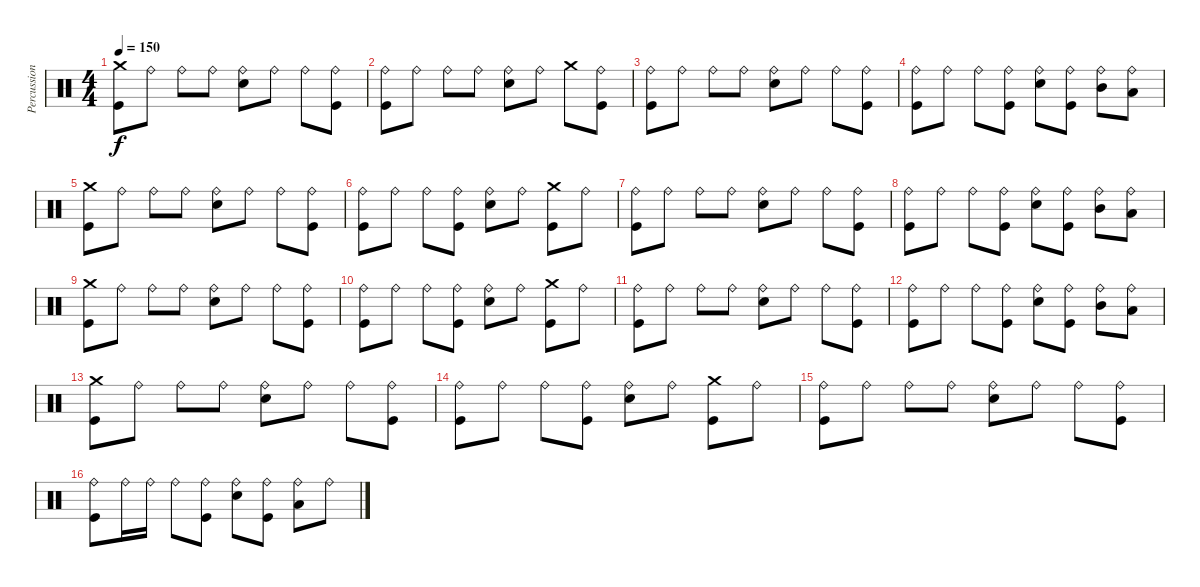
\track ("Percussions" "Percussion") {instrument percussion}
\staff {score}
\articulation defaults
\ts (4 4)
\tempo 150
\clef neutral
\ks c
("Kick (hit)" "Crash medium (hit)").8{dy f} "Ride (bell)".8 "Ride (bell)".8 "Ride (bell)".8 ("Electric Snare (hit)" "Ride (bell)").8 "Ride (bell)".8 "Ride (bell)".8 ("Kick (hit)" "Ride (bell)").8 |
("Kick (hit)" "Ride (bell)").8 "Ride (bell)".8 "Ride (bell)".8 "Ride (bell)".8 ("Electric Snare (hit)" "Ride (bell)").8 "Ride (bell)".8 "Crash medium (hit)".8 ("Kick (hit)" "Ride (bell)").8 |
("Kick (hit)" "Ride (bell)").8 "Ride (bell)".8 "Ride (bell)".8 "Ride (bell)".8 ("Electric Snare (hit)" "Ride (bell)").8 "Ride (bell)".8 "Ride (bell)".8 ("Kick (hit)" "Ride (bell)").8 |
("Kick (hit)" "Ride (bell)").8 "Ride (bell)".8 "Ride (bell)".8 ("Kick (hit)" "Ride (bell)").8 ("Electric Snare (hit)" "Ride (bell)").8 ("Kick (hit)" "Ride (bell)").8 ("Mid Tom (hit)" "Ride (bell)").8 ("Low Tom (hit)" "Ride (bell)").8 |
("Kick (hit)" "Crash medium (hit)").8 "Ride (bell)".8 "Ride (bell)".8 "Ride (bell)".8 ("Electric Snare (hit)" "Ride (bell)").8 "Ride (bell)".8 "Ride (bell)".8 ("Kick (hit)" "Ride (bell)").8 |
("Kick (hit)" "Ride (bell)").8 "Ride (bell)".8 "Ride (bell)".8 ("Kick (hit)" "Ride (bell)").8 ("Electric Snare (hit)" "Ride (bell)").8 "Ride (bell)".8 ("Kick (hit)" "Crash medium (hit)").8 "Ride (bell)".8 |
("Kick (hit)" "Ride (bell)").8 "Ride (bell)".8 "Ride (bell)".8 "Ride (bell)".8 ("Electric Snare (hit)" "Ride (bell)").8 "Ride (bell)".8 "Ride (bell)".8 ("Kick (hit)" "Ride (bell)").8 |
("Kick (hit)" "Ride (bell)").8 "Ride (bell)".8 "Ride (bell)".8 ("Kick (hit)" "Ride (bell)").8 ("Electric Snare (hit)" "Ride (bell)").8 ("Kick (hit)" "Ride (bell)").8 ("Mid Tom (hit)" "Ride (bell)").8 ("Low Tom (hit)" "Ride (bell)").8 |
("Kick (hit)" "Crash medium (hit)").8 "Ride (bell)".8 "Ride (bell)".8 "Ride (bell)".8 ("Electric Snare (hit)" "Ride (bell)").8 "Ride (bell)".8 "Ride (bell)".8 ("Kick (hit)" "Ride (bell)").8 |
("Kick (hit)" "Ride (bell)").8 "Ride (bell)".8 "Ride (bell)".8 ("Kick (hit)" "Ride (bell)").8 ("Electric Snare (hit)" "Ride (bell)").8 "Ride (bell)".8 ("Kick (hit)" "Crash medium (hit)").8 "Ride (bell)".8 |
("Kick (hit)" "Ride (bell)").8 "Ride (bell)".8 "Ride (bell)".8 "Ride (bell)".8 ("Electric Snare (hit)" "Ride (bell)").8 "Ride (bell)".8 "Ride (bell)".8 ("Kick (hit)" "Ride (bell)").8 |
("Kick (hit)" "Ride (bell)").8 "Ride (bell)".8 "Ride (bell)".8 ("Kick (hit)" "Ride (bell)").8 ("Electric Snare (hit)" "Ride (bell)").8 ("Kick (hit)" "Ride (bell)").8 ("Mid Tom (hit)" "Ride (bell)").8 ("Low Tom (hit)" "Ride (bell)").8 |
("Kick (hit)" "Crash medium (hit)").8 "Ride (bell)".8 "Ride (bell)".8 "Ride (bell)".8 ("Electric Snare (hit)" "Ride (bell)").8 "Ride (bell)".8 "Ride (bell)".8 ("Kick (hit)" "Ride (bell)").8 |
("Kick (hit)" "Ride (bell)").8 "Ride (bell)".8 "Ride (bell)".8 ("Kick (hit)" "Ride (bell)").8 ("Electric Snare (hit)" "Ride (bell)").8 "Ride (bell)".8 ("Kick (hit)" "Crash medium (hit)").8 "Ride (bell)".8 |
("Kick (hit)" "Ride (bell)").8 "Ride (bell)".8 "Ride (bell)".8 "Ride (bell)".8 ("Electric Snare (hit)" "Ride (bell)").8 "Ride (bell)".8 "Ride (bell)".8 ("Kick (hit)" "Ride (bell)").8 |
("Kick (hit)" "Ride (bell)").8 "Ride (bell)".16 "Ride (bell)".16 "Ride (bell)".8 ("Kick (hit)" "Ride (bell)").8 ("Electric Snare (hit)" "Ride (bell)").8 ("Kick (hit)" "Ride (bell)").8 ("Low Tom (hit)" "Ride (bell)").8 "Ride (bell)".8
